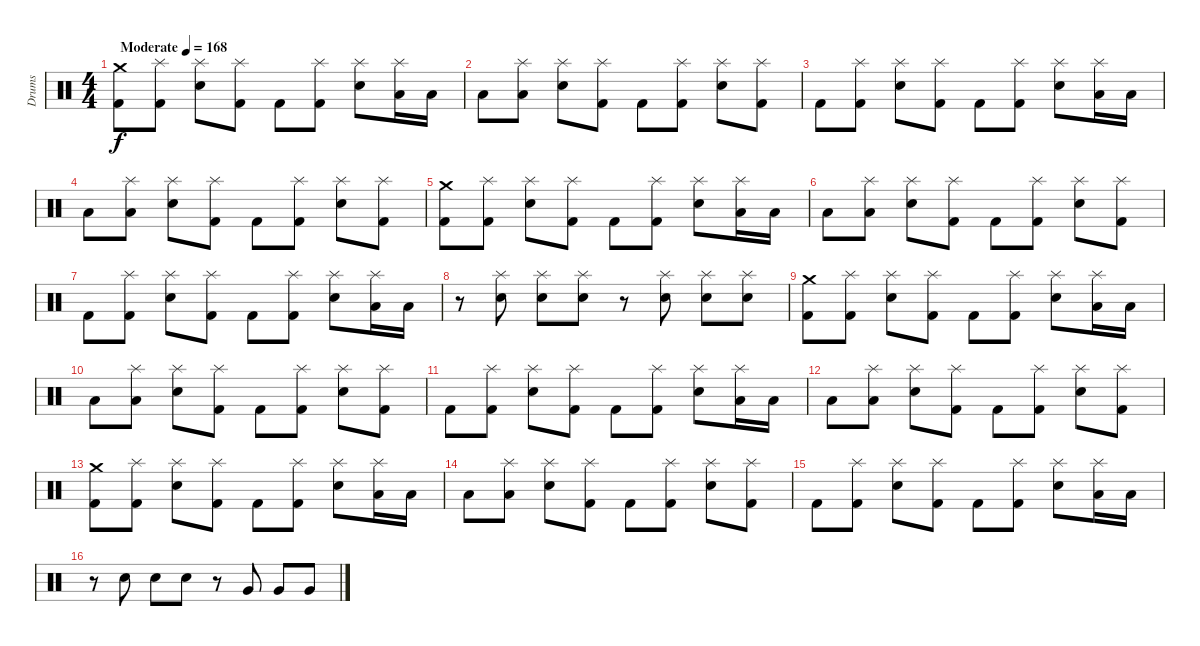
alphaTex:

\track ("Drums" "Drums") {instrument percussion}
\staff {score}
\articulation defaults
\ts (4 4)
\tempo (168 "Moderate")
\clef neutral
\ks c
("Crash medium (hit)" "Kick (hit) 2").8{dy f} ("Splash (hit)" "Kick (hit) 2").8 ("Splash (hit)" "Electric Snare (hit)").8 ("Splash (hit)" "Kick (hit) 2").8 "Kick (hit) 2".8 ("Splash (hit)" "Kick (hit) 2").8 ("Splash (hit)" "Electric Snare (hit)").8 ("Splash (hit)" "Low Floor Tom (hit)").16 "Low Floor Tom (hit)".16 |
"Low Floor Tom (hit)".8 ("Splash (hit)" "Low Floor Tom (hit)").8 ("Splash (hit)" "Electric Snare (hit)").8 ("Splash (hit)" "Kick (hit) 2").8 "Kick (hit) 2".8 ("Splash (hit)" "Kick (hit) 2").8 ("Splash (hit)" "Electric Snare (hit)").8 ("Splash (hit)" "Kick (hit) 2").8 |
"Kick (hit) 2".8 ("Splash (hit)" "Kick (hit) 2").8 ("Splash (hit)" "Electric Snare (hit)").8 ("Splash (hit)" "Kick (hit) 2").8 "Kick (hit) 2".8 ("Splash (hit)" "Kick (hit) 2").8 ("Splash (hit)" "Electric Snare (hit)").8 ("Splash (hit)" "Low Floor Tom (hit)").16 "Low Floor Tom (hit)".16 |
"Low Floor Tom (hit)".8 ("Splash (hit)" "Low Floor Tom (hit)").8 ("Splash (hit)" "Electric Snare (hit)").8 ("Splash (hit)" "Kick (hit) 2").8 "Kick (hit) 2".8 ("Splash (hit)" "Kick (hit) 2").8 ("Splash (hit)" "Electric Snare (hit)").8 ("Splash (hit)" "Kick (hit) 2").8 |
("Crash medium (hit)" "Kick (hit) 2").8 ("Splash (hit)" "Kick (hit) 2").8 ("Splash (hit)" "Electric Snare (hit)").8 ("Splash (hit)" "Kick (hit) 2").8 "Kick (hit) 2".8 ("Splash (hit)" "Kick (hit) 2").8 ("Splash (hit)" "Electric Snare (hit)").8 ("Splash (hit)" "Low Floor Tom (hit)").16 "Low Floor Tom (hit)".16 |
"Low Floor Tom (hit)".8 ("Splash (hit)" "Low Floor Tom (hit)").8 ("Splash (hit)" "Electric Snare (hit)").8 ("Splash (hit)" "Kick (hit) 2").8 "Kick (hit) 2".8 ("Splash (hit)" "Kick (hit) 2").8 ("Splash (hit)" "Electric Snare (hit)").8 ("Splash (hit)" "Kick (hit) 2").8 |
"Kick (hit) 2".8 ("Splash (hit)" "Kick (hit) 2").8 ("Splash (hit)" "Electric Snare (hit)").8 ("Splash (hit)" "Kick (hit) 2").8 "Kick (hit) 2".8 ("Splash (hit)" "Kick (hit) 2").8 ("Splash (hit)" "Electric Snare (hit)").8 ("Splash (hit)" "Low Floor Tom (hit)").16 "Low Floor Tom (hit)".16 |
r.8 ("Splash (hit)" "Electric Snare (hit)").8 ("Splash (hit)" "Electric Snare (hit)").8 ("Splash (hit)" "Electric Snare (hit)").8 r.8 ("Splash (hit)" "Electric Snare (hit)").8 ("Splash (hit)" "Electric Snare (hit)").8 ("Splash (hit)" "Electric Snare (hit)").8 |
("Crash medium (hit)" "Kick (hit) 2").8 ("Splash (hit)" "Kick (hit) 2").8 ("Splash (hit)" "Electric Snare (hit)").8 ("Splash (hit)" "Kick (hit) 2").8 "Kick (hit) 2".8 ("Splash (hit)" "Kick (hit) 2").8 ("Splash (hit)" "Electric Snare (hit)").8 ("Splash (hit)" "Low Floor Tom (hit)").16 "Low Floor Tom (hit)".16 |
"Low Floor Tom (hit)".8 ("Splash (hit)" "Low Floor Tom (hit)").8 ("Splash (hit)" "Electric Snare (hit)").8 ("Splash (hit)" "Kick (hit) 2").8 "Kick (hit) 2".8 ("Splash (hit)" "Kick (hit) 2").8 ("Splash (hit)" "Electric Snare (hit)").8 ("Splash (hit)" "Kick (hit) 2").8 |
"Kick (hit) 2".8 ("Splash (hit)" "Kick (hit) 2").8 ("Splash (hit)" "Electric Snare (hit)").8 ("Splash (hit)" "Kick (hit) 2").8 "Kick (hit) 2".8 ("Splash (hit)" "Kick (hit) 2").8 ("Splash (hit)" "Electric Snare (hit)").8 ("Splash (hit)" "Low Floor Tom (hit)").16 "Low Floor Tom (hit)".16 |
"Low Floor Tom (hit)".8 ("Splash (hit)" "Low Floor Tom (hit)").8 ("Splash (hit)" "Electric Snare (hit)").8 ("Splash (hit)" "Kick (hit) 2").8 "Kick (hit) 2".8 ("Splash (hit)" "Kick (hit) 2").8 ("Splash (hit)" "Electric Snare (hit)").8 ("Splash (hit)" "Kick (hit) 2").8 |
("Crash medium (hit)" "Kick (hit) 2").8 ("Splash (hit)" "Kick (hit) 2").8 ("Splash (hit)" "Electric Snare (hit)").8 ("Splash (hit)" "Kick (hit) 2").8 "Kick (hit) 2".8 ("Splash (hit)" "Kick (hit) 2").8 ("Splash (hit)" "Electric Snare (hit)").8 ("Splash (hit)" "Low Floor Tom (hit)").16 "Low Floor Tom (hit)".16 |
"Low Floor Tom (hit)".8 ("Splash (hit)" "Low Floor Tom (hit)").8 ("Splash (hit)" "Electric Snare (hit)").8 ("Splash (hit)" "Kick (hit) 2").8 "Kick (hit) 2".8 ("Splash (hit)" "Kick (hit) 2").8 ("Splash (hit)" "Electric Snare (hit)").8 ("Splash (hit)" "Kick (hit) 2").8 |
"Kick (hit) 2".8 ("Splash (hit)" "Kick (hit) 2").8 ("Splash (hit)" "Electric Snare (hit)").8 ("Splash (hit)" "Kick (hit) 2").8 "Kick (hit) 2".8 ("Splash (hit)" "Kick (hit) 2").8 ("Splash (hit)" "Electric Snare (hit)").8 ("Splash (hit)" "Low Floor Tom (hit)").16 "Low Floor Tom (hit)".16 |
r.8 "Electric Snare (hit)".8 "Electric Snare (hit)".8 "Electric Snare (hit)".8 r.8 "Very Low Tom (hit)".8 "Very Low Tom (hit)".8 "Very Low Tom (hit)".8
